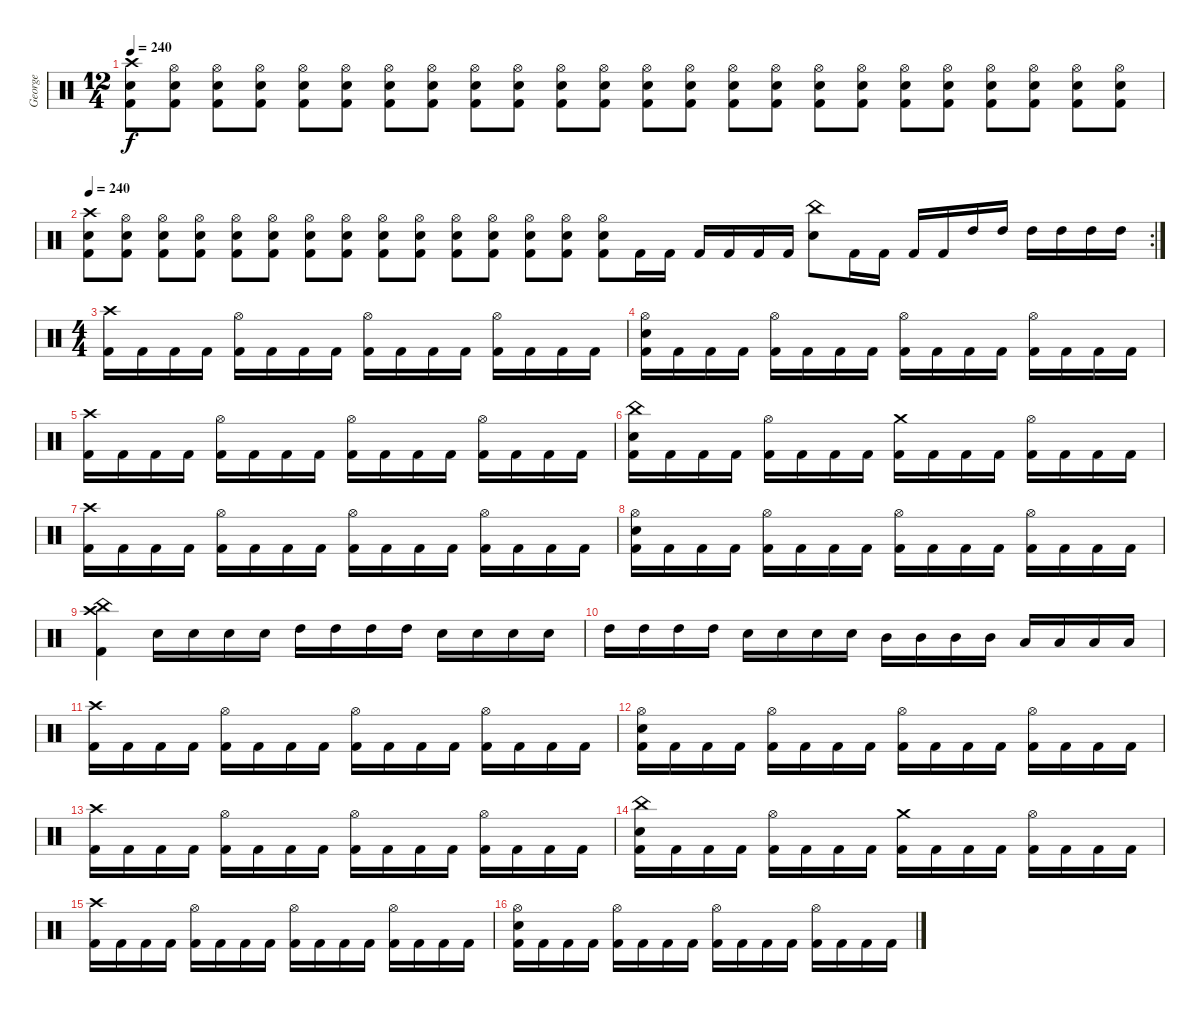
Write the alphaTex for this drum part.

\track ("George" "George") {instrument percussion}
\staff {score}
\articulation defaults
\ts (12 4)
\tempo 240
\clef neutral
\ks c
("Crash high (hit)" "Snare (hit) 2" "Kick (hit) 2").8{dy f} ("Hi-Hat (open)" "Snare (hit) 2" "Kick (hit) 2").8 ("Hi-Hat (open)" "Snare (hit) 2" "Kick (hit) 2").8 ("Hi-Hat (open)" "Snare (hit) 2" "Kick (hit) 2").8 ("Hi-Hat (open)" "Snare (hit) 2" "Kick (hit) 2").8 ("Hi-Hat (open)" "Snare (hit) 2" "Kick (hit) 2").8 ("Hi-Hat (open)" "Snare (hit) 2" "Kick (hit) 2").8 ("Hi-Hat (open)" "Snare (hit) 2" "Kick (hit) 2").8 ("Hi-Hat (open)" "Snare (hit) 2" "Kick (hit) 2").8 ("Hi-Hat (open)" "Snare (hit) 2" "Kick (hit) 2").8 ("Hi-Hat (open)" "Snare (hit) 2" "Kick (hit) 2").8 ("Hi-Hat (open)" "Snare (hit) 2" "Kick (hit) 2").8 ("Hi-Hat (open)" "Snare (hit) 2" "Kick (hit) 2").8 ("Hi-Hat (open)" "Snare (hit) 2" "Kick (hit) 2").8 ("Hi-Hat (open)" "Snare (hit) 2" "Kick (hit) 2").8 ("Hi-Hat (open)" "Snare (hit) 2" "Kick (hit) 2").8 ("Hi-Hat (open)" "Snare (hit) 2" "Kick (hit) 2").8 ("Hi-Hat (open)" "Snare (hit) 2" "Kick (hit) 2").8 ("Hi-Hat (open)" "Snare (hit) 2" "Kick (hit) 2").8 ("Hi-Hat (open)" "Snare (hit) 2" "Kick (hit) 2").8 ("Hi-Hat (open)" "Snare (hit) 2" "Kick (hit) 2").8 ("Hi-Hat (open)" "Snare (hit) 2" "Kick (hit) 2").8 ("Hi-Hat (open)" "Snare (hit) 2" "Kick (hit) 2").8 ("Hi-Hat (open)" "Snare (hit) 2" "Kick (hit) 2").8 |
\rc 2
\tempo 240
("Crash high (hit)" "Snare (hit) 2" "Kick (hit) 2").8 ("Hi-Hat (open)" "Snare (hit) 2" "Kick (hit) 2").8 ("Hi-Hat (open)" "Snare (hit) 2" "Kick (hit) 2").8 ("Hi-Hat (open)" "Snare (hit) 2" "Kick (hit) 2").8 ("Hi-Hat (open)" "Snare (hit) 2" "Kick (hit) 2").8 ("Hi-Hat (open)" "Snare (hit) 2" "Kick (hit) 2").8 ("Hi-Hat (open)" "Snare (hit) 2" "Kick (hit) 2").8 ("Hi-Hat (open)" "Snare (hit) 2" "Kick (hit) 2").8 ("Hi-Hat (open)" "Snare (hit) 2" "Kick (hit) 2").8 ("Hi-Hat (open)" "Snare (hit) 2" "Kick (hit) 2").8 ("Hi-Hat (open)" "Snare (hit) 2" "Kick (hit) 2").8 ("Hi-Hat (open)" "Snare (hit) 2" "Kick (hit) 2").8 ("Hi-Hat (open)" "Snare (hit) 2" "Kick (hit) 2").8 ("Hi-Hat (open)" "Snare (hit) 2" "Kick (hit) 2").8 ("Hi-Hat (open)" "Snare (hit) 2" "Kick (hit) 2").8 "Kick (hit) 2".16 "Kick (hit) 2".16 "Kick (hit) 2".16 "Kick (hit) 2".16 "Kick (hit) 2".16 "Kick (hit) 2".16 ("China (hit)" "Snare (hit) 2").8 "Kick (hit) 2".16 "Kick (hit) 2".16 "Kick (hit) 2".16 "Kick (hit) 2".16 "High Tom (hit)".16 "High Tom (hit)".16 "High Tom (hit)".16 "High Tom (hit)".16 "High Tom (hit)".16 "High Tom (hit)".16 |
\ts (4 4)
("Crash high (hit)" "Kick (hit) 2").16 "Kick (hit) 2".16 "Kick (hit) 2".16 "Kick (hit) 2".16 ("Hi-Hat (open)" "Kick (hit) 2").16 "Kick (hit) 2".16 "Kick (hit) 2".16 "Kick (hit) 2".16 ("Hi-Hat (open)" "Kick (hit) 2").16 "Kick (hit) 2".16 "Kick (hit) 2".16 "Kick (hit) 2".16 ("Hi-Hat (open)" "Kick (hit) 2").16 "Kick (hit) 2".16 "Kick (hit) 2".16 "Kick (hit) 2".16 |
("Hi-Hat (open)" "Snare (hit) 2" "Kick (hit) 2").16 "Kick (hit) 2".16 "Kick (hit) 2".16 "Kick (hit) 2".16 ("Hi-Hat (open)" "Kick (hit) 2").16 "Kick (hit) 2".16 "Kick (hit) 2".16 "Kick (hit) 2".16 ("Hi-Hat (open)" "Kick (hit) 2").16 "Kick (hit) 2".16 "Kick (hit) 2".16 "Kick (hit) 2".16 ("Hi-Hat (open)" "Kick (hit) 2").16 "Kick (hit) 2".16 "Kick (hit) 2".16 "Kick (hit) 2".16 |
("Crash high (hit)" "Kick (hit) 2").16 "Kick (hit) 2".16 "Kick (hit) 2".16 "Kick (hit) 2".16 ("Hi-Hat (open)" "Kick (hit) 2").16 "Kick (hit) 2".16 "Kick (hit) 2".16 "Kick (hit) 2".16 ("Hi-Hat (open)" "Kick (hit) 2").16 "Kick (hit) 2".16 "Kick (hit) 2".16 "Kick (hit) 2".16 ("Hi-Hat (open)" "Kick (hit) 2").16 "Kick (hit) 2".16 "Kick (hit) 2".16 "Kick (hit) 2".16 |
("China (hit)" "Snare (hit) 2" "Kick (hit) 2").16 "Kick (hit) 2".16 "Kick (hit) 2".16 "Kick (hit) 2".16 ("Hi-Hat (open)" "Kick (hit) 2").16 "Kick (hit) 2".16 "Kick (hit) 2".16 "Kick (hit) 2".16 ("Crash medium (hit)" "Kick (hit) 2").16 "Kick (hit) 2".16 "Kick (hit) 2".16 "Kick (hit) 2".16 ("Hi-Hat (open)" "Kick (hit) 2").16 "Kick (hit) 2".16 "Kick (hit) 2".16 "Kick (hit) 2".16 |
("Crash high (hit)" "Kick (hit) 2").16 "Kick (hit) 2".16 "Kick (hit) 2".16 "Kick (hit) 2".16 ("Hi-Hat (open)" "Kick (hit) 2").16 "Kick (hit) 2".16 "Kick (hit) 2".16 "Kick (hit) 2".16 ("Hi-Hat (open)" "Kick (hit) 2").16 "Kick (hit) 2".16 "Kick (hit) 2".16 "Kick (hit) 2".16 ("Hi-Hat (open)" "Kick (hit) 2").16 "Kick (hit) 2".16 "Kick (hit) 2".16 "Kick (hit) 2".16 |
("Hi-Hat (open)" "Snare (hit) 2" "Kick (hit) 2").16 "Kick (hit) 2".16 "Kick (hit) 2".16 "Kick (hit) 2".16 ("Hi-Hat (open)" "Kick (hit) 2").16 "Kick (hit) 2".16 "Kick (hit) 2".16 "Kick (hit) 2".16 ("Hi-Hat (open)" "Kick (hit) 2").16 "Kick (hit) 2".16 "Kick (hit) 2".16 "Kick (hit) 2".16 ("Hi-Hat (open)" "Kick (hit) 2").16 "Kick (hit) 2".16 "Kick (hit) 2".16 "Kick (hit) 2".16 |
("Crash high (hit)" "Kick (hit) 2" "China (hit)").4 "Snare (hit) 2".16 "Snare (hit) 2".16 "Snare (hit) 2".16 "Snare (hit) 2".16 "High Tom (hit)".16 "High Tom (hit)".16 "High Tom (hit)".16 "High Tom (hit)".16 "Snare (hit) 2".16 "Snare (hit) 2".16 "Snare (hit) 2".16 "Snare (hit) 2".16 |
"High Tom (hit)".16 "High Tom (hit)".16 "High Tom (hit)".16 "High Tom (hit)".16 "Snare (hit) 2".16 "Snare (hit) 2".16 "Snare (hit) 2".16 "Snare (hit) 2".16 "Mid Tom (hit)".16 "Mid Tom (hit)".16 "Mid Tom (hit)".16 "Mid Tom (hit)".16 "Low Tom (hit)".16 "Low Tom (hit)".16 "Low Tom (hit)".16 "Low Tom (hit)".16 |
("Crash high (hit)" "Kick (hit) 2").16 "Kick (hit) 2".16 "Kick (hit) 2".16 "Kick (hit) 2".16 ("Hi-Hat (open)" "Kick (hit) 2").16 "Kick (hit) 2".16 "Kick (hit) 2".16 "Kick (hit) 2".16 ("Hi-Hat (open)" "Kick (hit) 2").16 "Kick (hit) 2".16 "Kick (hit) 2".16 "Kick (hit) 2".16 ("Hi-Hat (open)" "Kick (hit) 2").16 "Kick (hit) 2".16 "Kick (hit) 2".16 "Kick (hit) 2".16 |
("Hi-Hat (open)" "Snare (hit) 2" "Kick (hit) 2").16 "Kick (hit) 2".16 "Kick (hit) 2".16 "Kick (hit) 2".16 ("Hi-Hat (open)" "Kick (hit) 2").16 "Kick (hit) 2".16 "Kick (hit) 2".16 "Kick (hit) 2".16 ("Hi-Hat (open)" "Kick (hit) 2").16 "Kick (hit) 2".16 "Kick (hit) 2".16 "Kick (hit) 2".16 ("Hi-Hat (open)" "Kick (hit) 2").16 "Kick (hit) 2".16 "Kick (hit) 2".16 "Kick (hit) 2".16 |
("Crash high (hit)" "Kick (hit) 2").16 "Kick (hit) 2".16 "Kick (hit) 2".16 "Kick (hit) 2".16 ("Hi-Hat (open)" "Kick (hit) 2").16 "Kick (hit) 2".16 "Kick (hit) 2".16 "Kick (hit) 2".16 ("Hi-Hat (open)" "Kick (hit) 2").16 "Kick (hit) 2".16 "Kick (hit) 2".16 "Kick (hit) 2".16 ("Hi-Hat (open)" "Kick (hit) 2").16 "Kick (hit) 2".16 "Kick (hit) 2".16 "Kick (hit) 2".16 |
("China (hit)" "Snare (hit) 2" "Kick (hit) 2").16 "Kick (hit) 2".16 "Kick (hit) 2".16 "Kick (hit) 2".16 ("Hi-Hat (open)" "Kick (hit) 2").16 "Kick (hit) 2".16 "Kick (hit) 2".16 "Kick (hit) 2".16 ("Crash medium (hit)" "Kick (hit) 2").16 "Kick (hit) 2".16 "Kick (hit) 2".16 "Kick (hit) 2".16 ("Hi-Hat (open)" "Kick (hit) 2").16 "Kick (hit) 2".16 "Kick (hit) 2".16 "Kick (hit) 2".16 |
("Crash high (hit)" "Kick (hit) 2").16 "Kick (hit) 2".16 "Kick (hit) 2".16 "Kick (hit) 2".16 ("Hi-Hat (open)" "Kick (hit) 2").16 "Kick (hit) 2".16 "Kick (hit) 2".16 "Kick (hit) 2".16 ("Hi-Hat (open)" "Kick (hit) 2").16 "Kick (hit) 2".16 "Kick (hit) 2".16 "Kick (hit) 2".16 ("Hi-Hat (open)" "Kick (hit) 2").16 "Kick (hit) 2".16 "Kick (hit) 2".16 "Kick (hit) 2".16 |
("Hi-Hat (open)" "Snare (hit) 2" "Kick (hit) 2").16 "Kick (hit) 2".16 "Kick (hit) 2".16 "Kick (hit) 2".16 ("Hi-Hat (open)" "Kick (hit) 2").16 "Kick (hit) 2".16 "Kick (hit) 2".16 "Kick (hit) 2".16 ("Hi-Hat (open)" "Kick (hit) 2").16 "Kick (hit) 2".16 "Kick (hit) 2".16 "Kick (hit) 2".16 ("Hi-Hat (open)" "Kick (hit) 2").16 "Kick (hit) 2".16 "Kick (hit) 2".16 "Kick (hit) 2".16
